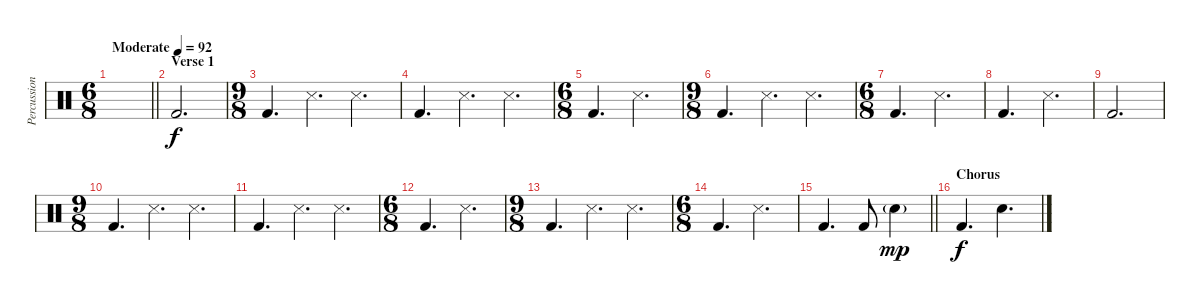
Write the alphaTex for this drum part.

\track ("Percussion" "Percussion") {instrument percussion}
\staff {score}
\articulation defaults
\ts (6 8)
\tempo (92 "Moderate")
\clef neutral
\barLineRight lightlight
\ks c
|
\section ("" "Verse 1")
"Kick (hit) 2".2{d} |
\ts (9 8)
"Kick (hit) 2".4{d} "Snare (side stick) 3".4{d} "Snare (side stick) 3".4{d} |
"Kick (hit) 2".4{d} "Snare (side stick) 3".4{d} "Snare (side stick) 3".4{d} |
\ts (6 8)
"Kick (hit) 2".4{d} "Snare (side stick) 3".4{d} |
\ts (9 8)
"Kick (hit) 2".4{d} "Snare (side stick) 3".4{d} "Snare (side stick) 3".4{d} |
\ts (6 8)
"Kick (hit) 2".4{d} "Snare (side stick) 3".4{d} |
"Kick (hit) 2".4{d} "Snare (side stick) 3".4{d} |
"Kick (hit) 2".2{d} |
\ts (9 8)
"Kick (hit) 2".4{d} "Snare (side stick) 3".4{d} "Snare (side stick) 3".4{d} |
"Kick (hit) 2".4{d} "Snare (side stick) 3".4{d} "Snare (side stick) 3".4{d} |
\ts (6 8)
"Kick (hit) 2".4{d} "Snare (side stick) 3".4{d} |
\ts (9 8)
"Kick (hit) 2".4{d} "Snare (side stick) 3".4{d} "Snare (side stick) 3".4{d} |
\ts (6 8)
"Kick (hit) 2".4{d} "Snare (side stick) 3".4{d} |
\barLineRight lightlight "Kick (hit) 2".4{d} "Kick (hit) 2".8 "Snare (hit) 2"{g}.4{dy mp}
|
\section ("" "Chorus")
"Kick (hit) 2".4{d dy f} "Snare (hit) 2".4{d}
